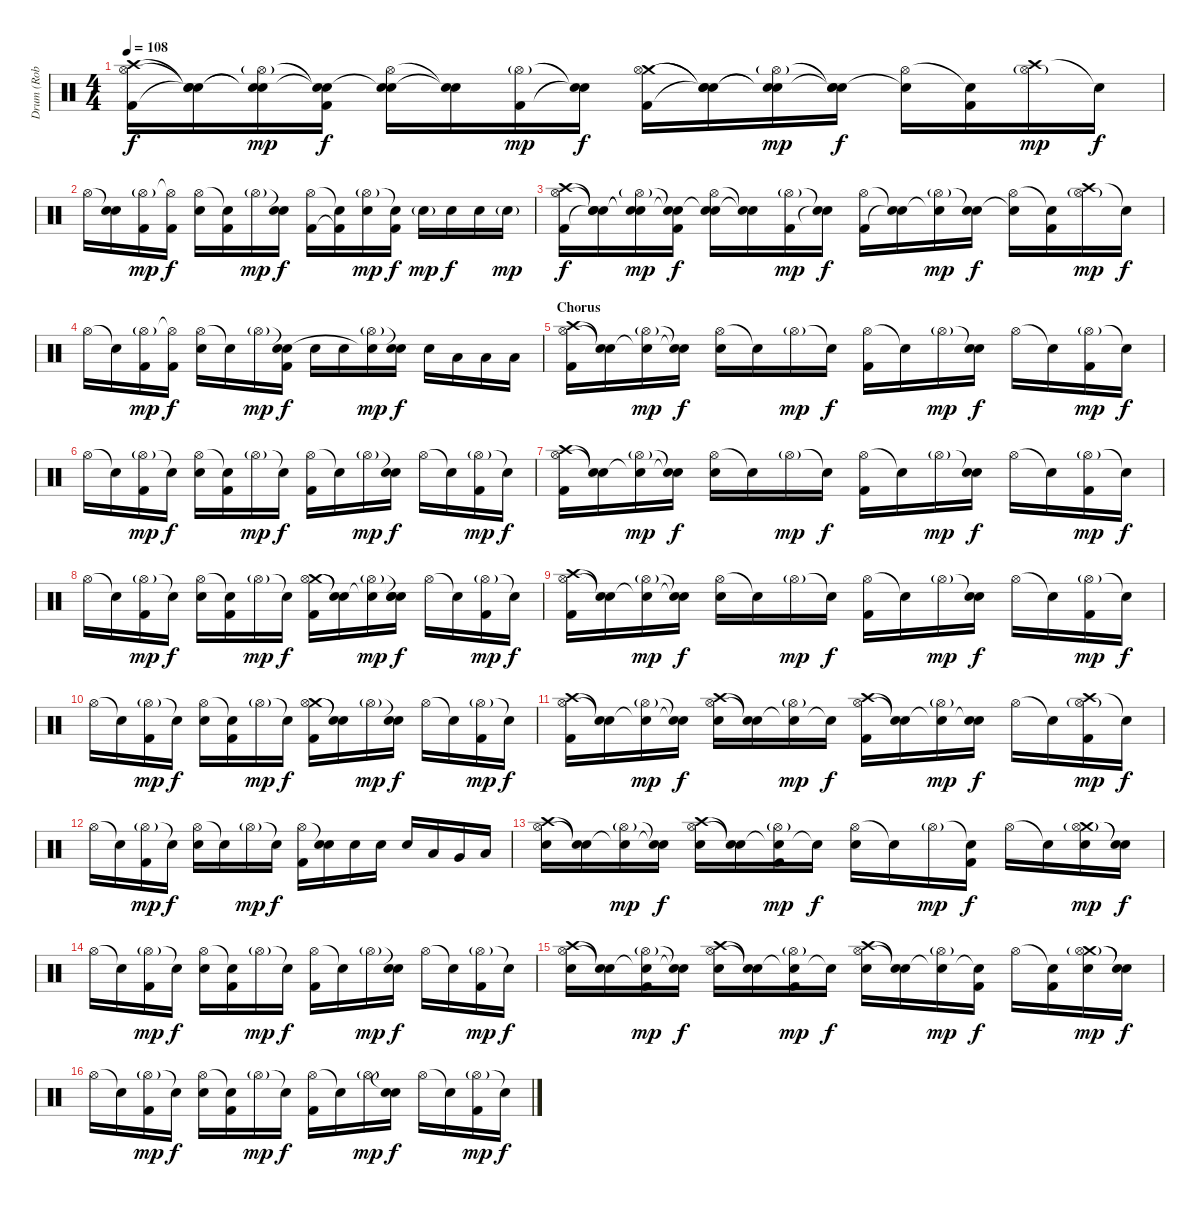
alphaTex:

\track ("Drum (Rob Bourdon)" "Drum (Rob ") {instrument percussion}
\staff {score}
\articulation defaults
\ts (4 4)
\tempo 108
\clef neutral
\ks c
("Crash high (hit)" "Hi-Hat (open)" "Kick (hit) 2").16{dy f} ("Snare (hit)"{t} "Snare (hit)"{t} "Snare (hit)"{t}).16 ("Snare (hit)"{t} "Hi-Hat (open)"{g} "Snare (hit)"{t}).16{dy mp} ("Snare (hit)"{t} "Snare (hit)"{t} "Kick (hit) 2").16{dy f} ("Snare (hit)"{t} "Hi-Hat (open)" "Electric Snare (hit)").16 ("Snare (hit)"{t} "Snare (hit)"{t}).16 ("Hi-Hat (open)"{g} "Kick (hit) 2").16{dy mp} ("Snare (hit)"{t} "Snare (hit)"{t}).16{dy f} ("Crash medium (hit)" "Hi-Hat (open)" "Kick (hit) 2").16 ("Snare (hit)"{t} "Snare (hit)"{t} "Snare (hit)"{t}).16 ("Snare (hit)"{t} "Hi-Hat (open)"{g} "Snare (hit)"{t}).16{dy mp} ("Snare (hit)"{t} "Snare (hit)"{t} "Electric Snare (hit)").16{dy f} ("Hi-Hat (open)" "Snare (hit)"{t}).16 ("Snare (hit)"{t} "Kick (hit) 2").16 ("Crash high (hit)" "Hi-Hat (open)"{g}).16{dy mp} "Snare (hit)"{t}.16{dy f} |
"Hi-Hat (open)".16 ("Snare (hit)"{t} "Electric Snare (hit)").16 ("Hi-Hat (open)"{g} "Kick (hit) 2").16{dy mp} ("Hi-Hat (open)"{t} "Kick (hit) 2").16{dy f} ("Hi-Hat (open)" "Electric Snare (hit)").16 ("Snare (hit)"{t} "Kick (hit) 2").16 "Hi-Hat (open)"{g}.16{dy mp} ("Snare (hit)"{t} "Electric Snare (hit)").16{dy f} ("Hi-Hat (open)" "Kick (hit) 2").16 ("Snare (hit)"{t} "Kick (hit) 2"{t}).16 ("Hi-Hat (open)"{g} "Electric Snare (hit)").16{dy mp} ("Snare (hit)"{t} "Kick (hit) 2").16{dy f} "Electric Snare (hit)"{g}.16{dy mp} "Electric Snare (hit)".16{dy f} "Electric Snare (hit)".16 "Electric Snare (hit)"{g}.16{dy mp} |
("Crash high (hit)" "Hi-Hat (open)" "Kick (hit) 2").16{dy f} ("Snare (hit)"{t} "Snare (hit)"{t} "Snare (hit)"{t}).16 ("Snare (hit)"{t} "Hi-Hat (open)"{g} "Snare (hit)"{t}).16{dy mp} ("Snare (hit)"{t} "Snare (hit)"{t} "Kick (hit) 2").16{dy f} ("Snare (hit)"{t} "Hi-Hat (open)" "Electric Snare (hit)").16 ("Snare (hit)"{t} "Snare (hit)"{t}).16 ("Hi-Hat (open)"{g} "Kick (hit) 2").16{dy mp} ("Snare (hit)"{t} "Snare (hit)"{t}).16{dy f} ("Hi-Hat (open)" "Kick (hit) 2").16 ("Snare (hit)"{t} "Snare (hit)"{t}).16 ("Hi-Hat (open)"{g} "Snare (hit)"{t}).16{dy mp} ("Snare (hit)"{t} "Electric Snare (hit)").16{dy f} ("Hi-Hat (open)" "Snare (hit)"{t}).16 ("Snare (hit)"{t} "Kick (hit) 2").16 ("Crash high (hit)" "Hi-Hat (open)"{g}).16{dy mp} "Snare (hit)"{t}.16{dy f} |
"Hi-Hat (open)".16 "Snare (hit)"{t}.16 ("Hi-Hat (open)"{g} "Kick (hit) 2").16{dy mp} ("Hi-Hat (open)"{t} "Kick (hit) 2").16{dy f} ("Hi-Hat (open)" "Electric Snare (hit)").16 "Snare (hit)"{t}.16 "Hi-Hat (open)"{g}.16{dy mp} ("Snare (hit)"{t} "Electric Snare (hit)" "Kick (hit) 2").16{dy f} "Electric Snare (hit)".16 "Electric Snare (hit)".16 ("Hi-Hat (open)"{g} "Electric Snare (hit)"{t}).16{dy mp} ("Snare (hit)"{t} "Electric Snare (hit)").16{dy f} "Electric Snare (hit)".16 "Low Tom (hit)".16 "Low Tom (hit)".16 "Low Floor Tom (hit)".16 |
\section ("" "Chorus")
("Crash high (hit)" "Hi-Hat (open)" "Kick (hit) 2").16 ("Snare (hit)"{t} "Snare (hit)"{t}).16 ("Snare (hit)"{t} "Hi-Hat (open)"{g}).16{dy mp} ("Snare (hit)"{t} "Snare (hit)"{t}).16{dy f} ("Hi-Hat (open)" "Electric Snare (hit)").16 "Snare (hit)"{t}.16 "Hi-Hat (open)"{g}.16{dy mp} "Snare (hit)"{t}.16{dy f} ("Hi-Hat (open)" "Kick (hit) 2").16 "Snare (hit)"{t}.16 "Hi-Hat (open)"{g}.16{dy mp} ("Snare (hit)"{t} "Electric Snare (hit)").16{dy f} "Hi-Hat (open)".16 "Snare (hit)"{t}.16 ("Hi-Hat (open)"{g} "Kick (hit) 2").16{dy mp} "Snare (hit)"{t}.16{dy f} |
"Hi-Hat (open)".16 "Snare (hit)"{t}.16 ("Hi-Hat (open)"{g} "Kick (hit) 2").16{dy mp} "Snare (hit)"{t}.16{dy f} ("Hi-Hat (open)" "Electric Snare (hit)").16 ("Snare (hit)"{t} "Kick (hit) 2").16 "Hi-Hat (open)"{g}.16{dy mp} "Snare (hit)"{t}.16{dy f} ("Hi-Hat (open)" "Kick (hit) 2").16 "Snare (hit)"{t}.16 "Hi-Hat (open)"{g}.16{dy mp} ("Snare (hit)"{t} "Electric Snare (hit)").16{dy f} "Hi-Hat (open)".16 "Snare (hit)"{t}.16 ("Hi-Hat (open)"{g} "Kick (hit) 2").16{dy mp} "Snare (hit)"{t}.16{dy f} |
("Crash high (hit)" "Hi-Hat (open)" "Kick (hit) 2").16 ("Snare (hit)"{t} "Snare (hit)"{t}).16 ("Snare (hit)"{t} "Hi-Hat (open)"{g}).16{dy mp} ("Snare (hit)"{t} "Snare (hit)"{t}).16{dy f} ("Hi-Hat (open)" "Electric Snare (hit)").16 "Snare (hit)"{t}.16 "Hi-Hat (open)"{g}.16{dy mp} "Snare (hit)"{t}.16{dy f} ("Hi-Hat (open)" "Kick (hit) 2").16 "Snare (hit)"{t}.16 "Hi-Hat (open)"{g}.16{dy mp} ("Snare (hit)"{t} "Electric Snare (hit)").16{dy f} "Hi-Hat (open)".16 "Snare (hit)"{t}.16 ("Hi-Hat (open)"{g} "Kick (hit) 2").16{dy mp} "Snare (hit)"{t}.16{dy f} |
"Hi-Hat (open)".16 "Snare (hit)"{t}.16 ("Hi-Hat (open)"{g} "Kick (hit) 2").16{dy mp} "Snare (hit)"{t}.16{dy f} ("Hi-Hat (open)" "Electric Snare (hit)").16 ("Snare (hit)"{t} "Kick (hit) 2").16 "Hi-Hat (open)"{g}.16{dy mp} "Snare (hit)"{t}.16{dy f} ("Crash medium (hit)" "Hi-Hat (open)" "Kick (hit) 2").16 ("Snare (hit)"{t} "Snare (hit)"{t}).16 ("Snare (hit)"{t} "Hi-Hat (open)"{g}).16{dy mp} ("Snare (hit)"{t} "Snare (hit)"{t} "Electric Snare (hit)").16{dy f} "Hi-Hat (open)".16 "Snare (hit)"{t}.16 ("Hi-Hat (open)"{g} "Kick (hit) 2").16{dy mp} "Snare (hit)"{t}.16{dy f} |
("Crash high (hit)" "Hi-Hat (open)" "Kick (hit) 2").16 ("Snare (hit)"{t} "Snare (hit)"{t}).16 ("Snare (hit)"{t} "Hi-Hat (open)"{g}).16{dy mp} ("Snare (hit)"{t} "Snare (hit)"{t}).16{dy f} ("Hi-Hat (open)" "Electric Snare (hit)").16 "Snare (hit)"{t}.16 "Hi-Hat (open)"{g}.16{dy mp} "Snare (hit)"{t}.16{dy f} ("Hi-Hat (open)" "Kick (hit) 2").16 "Snare (hit)"{t}.16 "Hi-Hat (open)"{g}.16{dy mp} ("Snare (hit)"{t} "Electric Snare (hit)").16{dy f} "Hi-Hat (open)".16 "Snare (hit)"{t}.16 ("Hi-Hat (open)"{g} "Kick (hit) 2").16{dy mp} "Snare (hit)"{t}.16{dy f} |
"Hi-Hat (open)".16 "Snare (hit)"{t}.16 ("Hi-Hat (open)"{g} "Kick (hit) 2").16{dy mp} "Snare (hit)"{t}.16{dy f} ("Hi-Hat (open)" "Electric Snare (hit)").16 ("Snare (hit)"{t} "Kick (hit) 2").16 "Hi-Hat (open)"{g}.16{dy mp} "Snare (hit)"{t}.16{dy f} ("Crash medium (hit)" "Hi-Hat (open)" "Kick (hit) 2").16 ("Snare (hit)"{t} "Snare (hit)"{t}).16 "Hi-Hat (open)"{g}.16{dy mp} ("Snare (hit)"{t} "Electric Snare (hit)").16{dy f} "Hi-Hat (open)".16 "Snare (hit)"{t}.16 ("Hi-Hat (open)"{g} "Kick (hit) 2").16{dy mp} "Snare (hit)"{t}.16{dy f} |
("Crash high (hit)" "Hi-Hat (open)" "Kick (hit) 2").16 ("Snare (hit)"{t} "Snare (hit)"{t}).16 ("Snare (hit)"{t} "Hi-Hat (open)"{g}).16{dy mp} ("Snare (hit)"{t} "Snare (hit)"{t}).16{dy f} ("Crash high (hit)" "Hi-Hat (open)" "Electric Snare (hit)").16 ("Snare (hit)"{t} "Snare (hit)"{t}).16 ("Snare (hit)"{t} "Hi-Hat (open)"{g}).16{dy mp} "Snare (hit)"{t}.16{dy f} ("Crash high (hit)" "Hi-Hat (open)" "Kick (hit) 2").16 ("Snare (hit)"{t} "Snare (hit)"{t}).16 ("Snare (hit)"{t} "Hi-Hat (open)"{g}).16{dy mp} ("Snare (hit)"{t} "Electric Snare (hit)").16{dy f} "Hi-Hat (open)".16 "Snare (hit)"{t}.16 ("Crash high (hit)" "Hi-Hat (open)"{g} "Kick (hit) 2").16{dy mp} "Snare (hit)"{t}.16{dy f} |
"Hi-Hat (open)".16 "Snare (hit)"{t}.16 ("Hi-Hat (open)"{g} "Kick (hit) 2").16{dy mp} "Snare (hit)"{t}.16{dy f} ("Hi-Hat (open)" "Electric Snare (hit)").16 "Snare (hit)"{t}.16 "Hi-Hat (open)"{g}.16{dy mp} "Snare (hit)"{t}.16{dy f} ("Hi-Hat (open)" "Kick (hit) 2").16 ("Snare (hit)"{t} "Electric Snare (hit)").16 "Electric Snare (hit)".16 "Electric Snare (hit)".16 "Electric Snare (hit)".16 "Low Tom (hit)".16 "Very Low Tom (hit)".16 "Low Floor Tom (hit)".16 |
("Crash high (hit)" "Hi-Hat (open)" "Electric Snare (hit)").16 ("Snare (hit)"{t} "Snare (hit)"{t}).16 ("Snare (hit)"{t} "Hi-Hat (open)"{g}).16{dy mp} ("Snare (hit)"{t} "Snare (hit)"{t}).16{dy f} ("Crash high (hit)" "Hi-Hat (open)" "Electric Snare (hit)").16 ("Snare (hit)"{t} "Snare (hit)"{t}).16 ("Snare (hit)"{t} "Hi-Hat (open)"{g} "Kick (hit) 2").16{dy mp} "Snare (hit)"{t}.16{dy f} ("Hi-Hat (open)" "Electric Snare (hit)").16 "Snare (hit)"{t}.16 "Hi-Hat (open)"{g}.16{dy mp} ("Snare (hit)"{t} "Kick (hit) 2").16{dy f} "Hi-Hat (open)".16 "Snare (hit)"{t}.16 ("Crash medium (hit)" "Hi-Hat (open)"{g} "Electric Snare (hit)").16{dy mp} ("Snare (hit)"{t} "Snare (hit)"{t}).16{dy f} |
"Hi-Hat (open)".16 "Snare (hit)"{t}.16 ("Hi-Hat (open)"{g} "Kick (hit) 2").16{dy mp} "Snare (hit)"{t}.16{dy f} ("Hi-Hat (open)" "Electric Snare (hit)").16 ("Snare (hit)"{t} "Kick (hit) 2").16 "Hi-Hat (open)"{g}.16{dy mp} "Snare (hit)"{t}.16{dy f} ("Hi-Hat (open)" "Kick (hit) 2").16 "Snare (hit)"{t}.16 "Hi-Hat (open)"{g}.16{dy mp} ("Snare (hit)"{t} "Electric Snare (hit)").16{dy f} "Hi-Hat (open)".16 "Snare (hit)"{t}.16 ("Hi-Hat (open)"{g} "Kick (hit) 2").16{dy mp} "Snare (hit)"{t}.16{dy f} |
("Crash high (hit)" "Hi-Hat (open)" "Electric Snare (hit)").16 ("Snare (hit)"{t} "Snare (hit)"{t}).16 ("Snare (hit)"{t} "Hi-Hat (open)"{g} "Kick (hit) 2").16{dy mp} ("Snare (hit)"{t} "Snare (hit)"{t}).16{dy f} ("Crash high (hit)" "Hi-Hat (open)" "Electric Snare (hit)").16 ("Snare (hit)"{t} "Snare (hit)"{t}).16 ("Snare (hit)"{t} "Hi-Hat (open)"{g} "Kick (hit) 2").16{dy mp} "Snare (hit)"{t}.16{dy f} ("Crash high (hit)" "Hi-Hat (open)" "Electric Snare (hit)").16 ("Snare (hit)"{t} "Snare (hit)"{t}).16 ("Snare (hit)"{t} "Hi-Hat (open)"{g}).16{dy mp} ("Snare (hit)"{t} "Kick (hit) 2").16{dy f} "Hi-Hat (open)".16 ("Snare (hit)"{t} "Kick (hit) 2").16 ("Crash medium (hit)" "Hi-Hat (open)"{g} "Electric Snare (hit)").16{dy mp} ("Snare (hit)"{t} "Snare (hit)"{t}).16{dy f} |
"Hi-Hat (open)".16 "Snare (hit)"{t}.16 ("Hi-Hat (open)"{g} "Kick (hit) 2").16{dy mp} "Snare (hit)"{t}.16{dy f} ("Hi-Hat (open)" "Electric Snare (hit)").16 ("Snare (hit)"{t} "Kick (hit) 2").16 "Hi-Hat (open)"{g}.16{dy mp} "Snare (hit)"{t}.16{dy f} ("Hi-Hat (open)" "Kick (hit) 2").16 "Snare (hit)"{t}.16 "Hi-Hat (open)"{g}.16{dy mp} ("Snare (hit)"{t} "Electric Snare (hit)").16{dy f} "Hi-Hat (open)".16 "Snare (hit)"{t}.16 ("Hi-Hat (open)"{g} "Kick (hit) 2").16{dy mp} "Snare (hit)"{t}.16{dy f}
